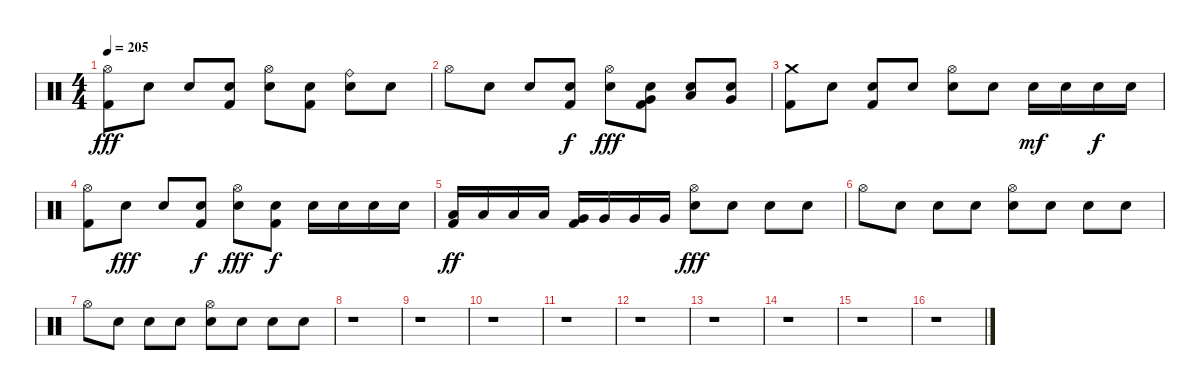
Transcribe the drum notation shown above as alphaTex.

\track "" {instrument percussion}
\staff {score}
\articulation defaults
\ts (4 4)
\tempo 205
\clef neutral
\ks c
("Hi-Hat (open)" "Kick (hit) 2").8{dy fff} "Snare (hit)".8 "Snare (hit)".8 ("Snare (hit)" "Kick (hit) 2").8 ("Electric Snare (hit)" "Hi-Hat (open)").8 ("Snare (hit)" "Kick (hit) 2").8 ("Ride (bell)" "Snare (hit)").8 "Snare (hit)".8 |
"Hi-Hat (open)".8 "Snare (hit)".8 "Snare (hit)".8 ("Snare (hit)" "Kick (hit) 2").8{dy f} ("Electric Snare (hit)" "Hi-Hat (open)").8{dy fff} ("Very Low Tom (hit)" "Snare (hit)" "Kick (hit) 2").8 ("Low Tom (hit)" "Snare (hit)").8 ("Very Low Tom (hit)" "Snare (hit)").8 |
("Crash medium (hit)" "Kick (hit) 2").8 "Snare (hit)".8 ("Snare (hit)" "Kick (hit) 2").8 "Snare (hit)".8 ("Electric Snare (hit)" "Hi-Hat (open)").8 "Snare (hit)".8 "Electric Snare (hit)".16{dy mf} "Electric Snare (hit)".16 "Electric Snare (hit)".16{dy f} "Electric Snare (hit)".16 |
("Hi-Hat (open)" "Kick (hit) 2").8 "Electric Snare (hit)".8{dy fff} "Electric Snare (hit)".8 ("Snare (hit)" "Kick (hit) 2").8{dy f} ("Electric Snare (hit)" "Hi-Hat (open)").8{dy fff} ("Snare (hit)" "Kick (hit) 2").8{dy f} "Electric Snare (hit)".16 "Electric Snare (hit)".16 "Electric Snare (hit)".16 "Electric Snare (hit)".16 |
("Low Tom (hit)" "Kick (hit) 2").16{dy ff} "Low Tom (hit)".16 "Low Tom (hit)".16 "Low Tom (hit)".16 ("Very Low Tom (hit)" "Kick (hit) 2").16 "Very Low Tom (hit)".16 "Very Low Tom (hit)".16 "Very Low Tom (hit)".16 ("Electric Snare (hit)" "Hi-Hat (open)").8{dy fff} "Snare (hit)".8 "Snare (hit)".8 "Snare (hit)".8 |
"Hi-Hat (open)".8 "Snare (hit)".8 "Snare (hit)".8 "Snare (hit)".8 ("Electric Snare (hit)" "Hi-Hat (open)").8 "Snare (hit)".8 "Snare (hit)".8 "Snare (hit)".8 |
"Hi-Hat (open)".8 "Snare (hit)".8 "Snare (hit)".8 "Snare (hit)".8 ("Electric Snare (hit)" "Hi-Hat (open)").8 "Snare (hit)".8 "Snare (hit)".8 "Snare (hit)".8 |
r.1 |
r.1 |
r.1 |
r.1 |
r.1 |
r.1 |
r.1 |
r.1 |
r.1
